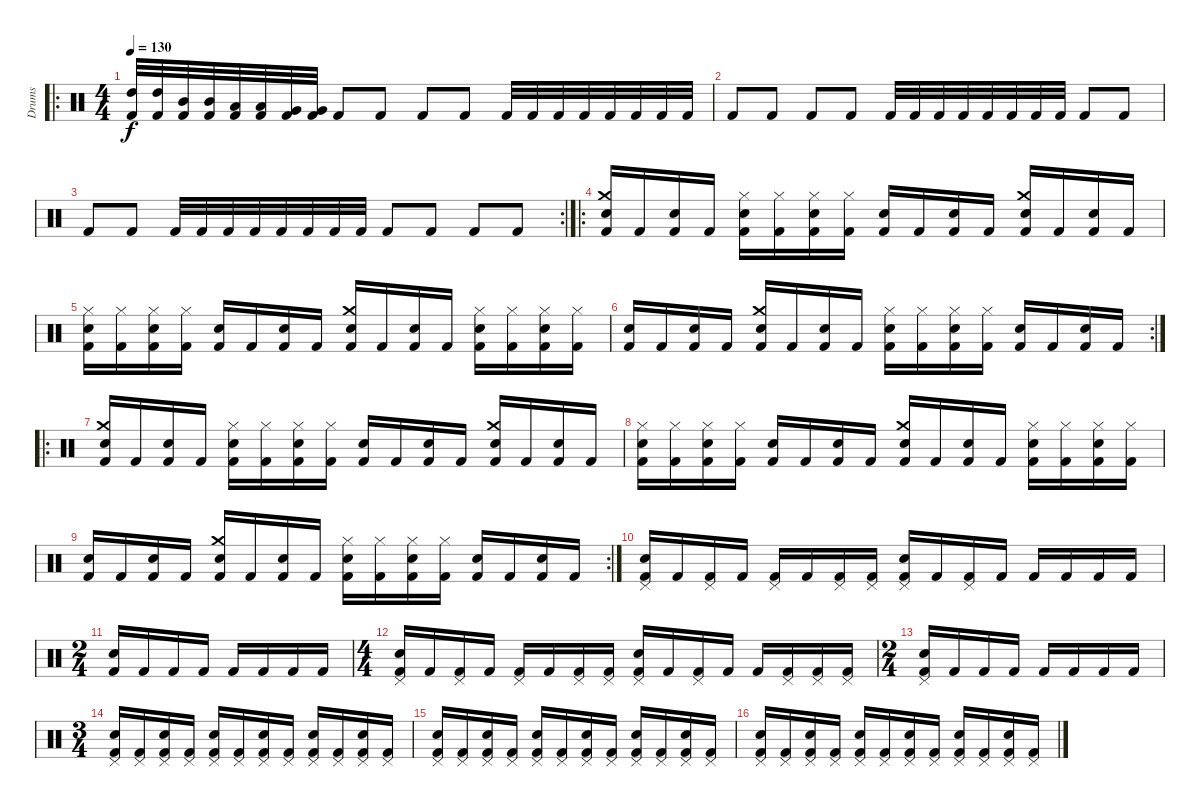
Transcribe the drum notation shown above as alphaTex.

\track ("Drums" "Drums") {instrument percussion}
\staff {score}
\articulation defaults
\ro
\ts (4 4)
\tempo 130
\clef neutral
\ks c
("High Tom (hit)" "Kick (hit) 2").32{dy f} ("High Tom (hit)" "Kick (hit) 2").32 ("Mid Tom (hit)" "Kick (hit) 2").32 ("Mid Tom (hit)" "Kick (hit) 2").32 ("Low Tom (hit)" "Kick (hit) 2").32 ("Low Tom (hit)" "Kick (hit) 2").32 ("Very Low Tom (hit)" "Kick (hit) 2").32 ("Very Low Tom (hit)" "Kick (hit) 2").32 "Kick (hit) 2".8 "Kick (hit) 2".8 "Kick (hit) 2".8 "Kick (hit) 2".8 "Kick (hit) 2".32 "Kick (hit) 2".32 "Kick (hit) 2".32 "Kick (hit) 2".32 "Kick (hit) 2".32 "Kick (hit) 2".32 "Kick (hit) 2".32 "Kick (hit) 2".32 |
"Kick (hit) 2".8 "Kick (hit) 2".8 "Kick (hit) 2".8 "Kick (hit) 2".8 "Kick (hit) 2".32 "Kick (hit) 2".32 "Kick (hit) 2".32 "Kick (hit) 2".32 "Kick (hit) 2".32 "Kick (hit) 2".32 "Kick (hit) 2".32 "Kick (hit) 2".32 "Kick (hit) 2".8 "Kick (hit) 2".8 |
\rc 2 "Kick (hit) 2".8 "Kick (hit) 2".8 "Kick (hit) 2".32 "Kick (hit) 2".32 "Kick (hit) 2".32 "Kick (hit) 2".32 "Kick (hit) 2".32 "Kick (hit) 2".32 "Kick (hit) 2".32 "Kick (hit) 2".32 "Kick (hit) 2".8 "Kick (hit) 2".8 "Kick (hit) 2".8 "Kick (hit) 2".8
|
\ro
("Crash medium (hit)" "Electric Snare (hit)" "Kick (hit) 2").16 "Kick (hit) 2".16 ("Electric Snare (hit)" "Kick (hit) 2").16 "Kick (hit) 2".16 ("Hi-Hat (closed)" "Electric Snare (hit)" "Kick (hit) 2").16 ("Hi-Hat (closed)" "Kick (hit) 2").16 ("Hi-Hat (closed)" "Electric Snare (hit)" "Kick (hit) 2").16 ("Hi-Hat (closed)" "Kick (hit) 2").16 ("Electric Snare (hit)" "Kick (hit) 2").16 "Kick (hit) 2".16 ("Electric Snare (hit)" "Kick (hit) 2").16 "Kick (hit) 2".16 ("Crash medium (hit)" "Electric Snare (hit)" "Kick (hit) 2").16 "Kick (hit) 2".16 ("Electric Snare (hit)" "Kick (hit) 2").16 "Kick (hit) 2".16 |
("Hi-Hat (closed)" "Electric Snare (hit)" "Kick (hit) 2").16 ("Hi-Hat (closed)" "Kick (hit) 2").16 ("Hi-Hat (closed)" "Electric Snare (hit)" "Kick (hit) 2").16 ("Hi-Hat (closed)" "Kick (hit) 2").16 ("Electric Snare (hit)" "Kick (hit) 2").16 "Kick (hit) 2".16 ("Electric Snare (hit)" "Kick (hit) 2").16 "Kick (hit) 2".16 ("Crash medium (hit)" "Electric Snare (hit)" "Kick (hit) 2").16 "Kick (hit) 2".16 ("Electric Snare (hit)" "Kick (hit) 2").16 "Kick (hit) 2".16 ("Hi-Hat (closed)" "Electric Snare (hit)" "Kick (hit) 2").16 ("Hi-Hat (closed)" "Kick (hit) 2").16 ("Hi-Hat (closed)" "Electric Snare (hit)" "Kick (hit) 2").16 ("Hi-Hat (closed)" "Kick (hit) 2").16 |
\rc 2
("Electric Snare (hit)" "Kick (hit) 2").16 "Kick (hit) 2".16 ("Electric Snare (hit)" "Kick (hit) 2").16 "Kick (hit) 2".16 ("Crash medium (hit)" "Electric Snare (hit)" "Kick (hit) 2").16 "Kick (hit) 2".16 ("Electric Snare (hit)" "Kick (hit) 2").16 "Kick (hit) 2".16 ("Hi-Hat (closed)" "Electric Snare (hit)" "Kick (hit) 2").16 ("Hi-Hat (closed)" "Kick (hit) 2").16 ("Hi-Hat (closed)" "Electric Snare (hit)" "Kick (hit) 2").16 ("Hi-Hat (closed)" "Kick (hit) 2").16 ("Electric Snare (hit)" "Kick (hit) 2").16 "Kick (hit) 2".16 ("Electric Snare (hit)" "Kick (hit) 2").16 "Kick (hit) 2".16 |
\ro
("Crash medium (hit)" "Electric Snare (hit)" "Kick (hit) 2").16 "Kick (hit) 2".16 ("Electric Snare (hit)" "Kick (hit) 2").16 "Kick (hit) 2".16 ("Hi-Hat (closed)" "Electric Snare (hit)" "Kick (hit) 2").16 ("Hi-Hat (closed)" "Kick (hit) 2").16 ("Hi-Hat (closed)" "Electric Snare (hit)" "Kick (hit) 2").16 ("Hi-Hat (closed)" "Kick (hit) 2").16 ("Electric Snare (hit)" "Kick (hit) 2").16 "Kick (hit) 2".16 ("Electric Snare (hit)" "Kick (hit) 2").16 "Kick (hit) 2".16 ("Crash medium (hit)" "Electric Snare (hit)" "Kick (hit) 2").16 "Kick (hit) 2".16 ("Electric Snare (hit)" "Kick (hit) 2").16 "Kick (hit) 2".16 |
("Hi-Hat (closed)" "Electric Snare (hit)" "Kick (hit) 2").16 ("Hi-Hat (closed)" "Kick (hit) 2").16 ("Hi-Hat (closed)" "Electric Snare (hit)" "Kick (hit) 2").16 ("Hi-Hat (closed)" "Kick (hit) 2").16 ("Electric Snare (hit)" "Kick (hit) 2").16 "Kick (hit) 2".16 ("Electric Snare (hit)" "Kick (hit) 2").16 "Kick (hit) 2".16 ("Crash medium (hit)" "Electric Snare (hit)" "Kick (hit) 2").16 "Kick (hit) 2".16 ("Electric Snare (hit)" "Kick (hit) 2").16 "Kick (hit) 2".16 ("Hi-Hat (closed)" "Electric Snare (hit)" "Kick (hit) 2").16 ("Hi-Hat (closed)" "Kick (hit) 2").16 ("Hi-Hat (closed)" "Electric Snare (hit)" "Kick (hit) 2").16 ("Hi-Hat (closed)" "Kick (hit) 2").16 |
\rc 2
("Electric Snare (hit)" "Kick (hit) 2").16 "Kick (hit) 2".16 ("Electric Snare (hit)" "Kick (hit) 2").16 "Kick (hit) 2".16 ("Crash medium (hit)" "Electric Snare (hit)" "Kick (hit) 2").16 "Kick (hit) 2".16 ("Electric Snare (hit)" "Kick (hit) 2").16 "Kick (hit) 2".16 ("Hi-Hat (closed)" "Electric Snare (hit)" "Kick (hit) 2").16 ("Hi-Hat (closed)" "Kick (hit) 2").16 ("Hi-Hat (closed)" "Electric Snare (hit)" "Kick (hit) 2").16 ("Hi-Hat (closed)" "Kick (hit) 2").16 ("Electric Snare (hit)" "Kick (hit) 2").16 "Kick (hit) 2".16 ("Electric Snare (hit)" "Kick (hit) 2").16 "Kick (hit) 2".16 |
("Pedal Hi-Hat (hit)" "Electric Snare (hit)" "Kick (hit) 2").16 "Kick (hit) 2".16 ("Pedal Hi-Hat (hit)" "Kick (hit) 2").16 "Kick (hit) 2".16 ("Pedal Hi-Hat (hit)" "Kick (hit) 2").16 "Kick (hit) 2".16 ("Pedal Hi-Hat (hit)" "Kick (hit) 2").16 ("Pedal Hi-Hat (hit)" "Kick (hit) 2").16 ("Pedal Hi-Hat (hit)" "Electric Snare (hit)" "Kick (hit) 2").16 "Kick (hit) 2".16 ("Pedal Hi-Hat (hit)" "Kick (hit) 2").16 "Kick (hit) 2".16 "Kick (hit) 2".16 "Kick (hit) 2".16 "Kick (hit) 2".16 "Kick (hit) 2".16 |
\ts (2 4)
("Electric Snare (hit)" "Kick (hit) 2").16 "Kick (hit) 2".16 "Kick (hit) 2".16 "Kick (hit) 2".16 "Kick (hit) 2".16 "Kick (hit) 2".16 "Kick (hit) 2".16 "Kick (hit) 2".16 |
\ts (4 4)
("Pedal Hi-Hat (hit)" "Electric Snare (hit)" "Kick (hit) 2").16 "Kick (hit) 2".16 ("Pedal Hi-Hat (hit)" "Kick (hit) 2").16 "Kick (hit) 2".16 ("Pedal Hi-Hat (hit)" "Kick (hit) 2").16 "Kick (hit) 2".16 ("Pedal Hi-Hat (hit)" "Kick (hit) 2").16 ("Pedal Hi-Hat (hit)" "Kick (hit) 2").16 ("Pedal Hi-Hat (hit)" "Electric Snare (hit)" "Kick (hit) 2").16 "Kick (hit) 2".16 ("Pedal Hi-Hat (hit)" "Kick (hit) 2").16 "Kick (hit) 2".16 "Kick (hit) 2".16 ("Pedal Hi-Hat (hit)" "Kick (hit) 2").16 ("Pedal Hi-Hat (hit)" "Kick (hit) 2").16 ("Pedal Hi-Hat (hit)" "Kick (hit) 2").16 |
\ts (2 4)
("Pedal Hi-Hat (hit)" "Electric Snare (hit)" "Kick (hit) 2").16 "Kick (hit) 2".16 "Kick (hit) 2".16 "Kick (hit) 2".16 "Kick (hit) 2".16 "Kick (hit) 2".16 "Kick (hit) 2".16 "Kick (hit) 2".16 |
\ts (3 4)
("Electric Snare (hit)" "Pedal Hi-Hat (hit)" "Kick (hit) 2").16 ("Pedal Hi-Hat (hit)" "Kick (hit) 2").16 ("Electric Snare (hit)" "Pedal Hi-Hat (hit)" "Kick (hit) 2").16 ("Pedal Hi-Hat (hit)" "Kick (hit) 2").16 ("Electric Snare (hit)" "Pedal Hi-Hat (hit)" "Kick (hit) 2").16 ("Pedal Hi-Hat (hit)" "Kick (hit) 2").16 ("Electric Snare (hit)" "Pedal Hi-Hat (hit)" "Kick (hit) 2").16 ("Pedal Hi-Hat (hit)" "Kick (hit) 2").16 ("Electric Snare (hit)" "Pedal Hi-Hat (hit)" "Kick (hit) 2").16 ("Pedal Hi-Hat (hit)" "Kick (hit) 2").16 ("Electric Snare (hit)" "Pedal Hi-Hat (hit)" "Kick (hit) 2").16 ("Pedal Hi-Hat (hit)" "Kick (hit) 2").16 |
("Electric Snare (hit)" "Pedal Hi-Hat (hit)" "Kick (hit) 2").16 ("Pedal Hi-Hat (hit)" "Kick (hit) 2").16 ("Electric Snare (hit)" "Pedal Hi-Hat (hit)" "Kick (hit) 2").16 ("Pedal Hi-Hat (hit)" "Kick (hit) 2").16 ("Electric Snare (hit)" "Pedal Hi-Hat (hit)" "Kick (hit) 2").16 ("Pedal Hi-Hat (hit)" "Kick (hit) 2").16 ("Electric Snare (hit)" "Pedal Hi-Hat (hit)" "Kick (hit) 2").16 ("Pedal Hi-Hat (hit)" "Kick (hit) 2").16 ("Electric Snare (hit)" "Pedal Hi-Hat (hit)" "Kick (hit) 2").16 ("Pedal Hi-Hat (hit)" "Kick (hit) 2").16 ("Electric Snare (hit)" "Pedal Hi-Hat (hit)" "Kick (hit) 2").16 ("Pedal Hi-Hat (hit)" "Kick (hit) 2").16 |
("Electric Snare (hit)" "Pedal Hi-Hat (hit)" "Kick (hit) 2").16 ("Pedal Hi-Hat (hit)" "Kick (hit) 2").16 ("Electric Snare (hit)" "Pedal Hi-Hat (hit)" "Kick (hit) 2").16 ("Pedal Hi-Hat (hit)" "Kick (hit) 2").16 ("Electric Snare (hit)" "Pedal Hi-Hat (hit)" "Kick (hit) 2").16 ("Pedal Hi-Hat (hit)" "Kick (hit) 2").16 ("Electric Snare (hit)" "Pedal Hi-Hat (hit)" "Kick (hit) 2").16 ("Pedal Hi-Hat (hit)" "Kick (hit) 2").16 ("Electric Snare (hit)" "Pedal Hi-Hat (hit)" "Kick (hit) 2").16 ("Pedal Hi-Hat (hit)" "Kick (hit) 2").16 ("Electric Snare (hit)" "Pedal Hi-Hat (hit)" "Kick (hit) 2").16 ("Pedal Hi-Hat (hit)" "Kick (hit) 2").16
